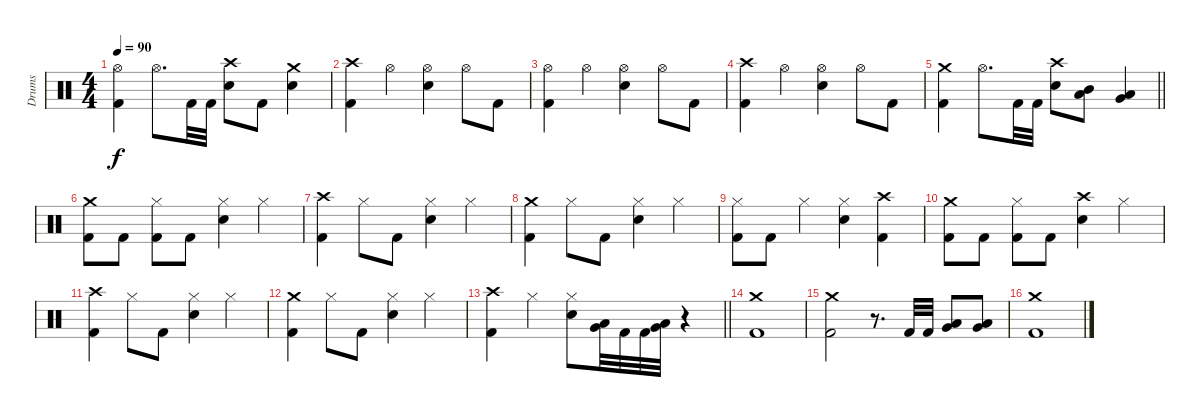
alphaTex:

\track ("Drums" "Drums") {instrument percussion}
\staff {score}
\articulation defaults
\ts (4 4)
\tempo 90
\clef neutral
\ks c
("Hi-Hat (open)" "Kick (hit) 2").4{dy f} "Hi-Hat (open)".8{d} "Kick (hit) 2".32 "Kick (hit) 2".32 ("Crash high (hit)" "Snare (hit) 2").8 "Kick (hit) 2".8 ("Crash medium (hit)" "Snare (hit) 2").4 |
("Crash high (hit)" "Kick (hit) 2").4 "Hi-Hat (open)".4 ("Hi-Hat (open)" "Snare (hit) 2").4 "Hi-Hat (open)".8 "Kick (hit) 2".8 |
("Hi-Hat (open)" "Kick (hit) 2").4 "Hi-Hat (open)".4 ("Hi-Hat (open)" "Snare (hit) 2").4 "Hi-Hat (open)".8 "Kick (hit) 2".8 |
("Crash high (hit)" "Kick (hit) 2").4 "Hi-Hat (open)".4 ("Hi-Hat (open)" "Snare (hit) 2").4 "Hi-Hat (open)".8 "Kick (hit) 2".8 |
\barLineRight lightlight
("Crash medium (hit)" "Kick (hit) 2").4 "Hi-Hat (open)".8{d} "Kick (hit) 2".32 "Kick (hit) 2".32 ("Crash high (hit)" "Snare (hit) 2").8 ("Mid Tom (hit)" "Low Tom (hit)").8 ("Low Tom (hit)" "Very Low Tom (hit)").4 |
("Crash medium (hit)" "Kick (hit) 2").8 "Kick (hit) 2".8 ("Hi-Hat (closed)" "Kick (hit) 2").8 "Kick (hit) 2".8 ("Hi-Hat (closed)" "Snare (hit) 2").4 "Hi-Hat (closed)".4 |
("Crash high (hit)" "Kick (hit) 2").4 "Hi-Hat (closed)".8 "Kick (hit) 2".8 ("Hi-Hat (closed)" "Snare (hit) 2").4 "Hi-Hat (closed)".4 |
("Crash medium (hit)" "Kick (hit) 2").4 "Hi-Hat (closed)".8 "Kick (hit) 2".8 ("Hi-Hat (closed)" "Snare (hit) 2").4 "Hi-Hat (closed)".4 |
("Hi-Hat (closed)" "Kick (hit) 2").8 "Kick (hit) 2".8 "Hi-Hat (closed)".4 ("Hi-Hat (closed)" "Snare (hit) 2").4 ("Crash high (hit)" "Kick (hit) 2").4 |
("Crash medium (hit)" "Kick (hit) 2").8 "Kick (hit) 2".8 ("Hi-Hat (closed)" "Kick (hit) 2").8 "Kick (hit) 2".8 ("Crash high (hit)" "Snare (hit) 2").4 "Hi-Hat (closed)".4 |
("Crash high (hit)" "Kick (hit) 2").4 "Hi-Hat (closed)".8 "Kick (hit) 2".8 ("Hi-Hat (closed)" "Snare (hit) 2").4 "Hi-Hat (closed)".4 |
("Crash medium (hit)" "Kick (hit) 2").4 "Hi-Hat (closed)".8 "Kick (hit) 2".8 ("Hi-Hat (closed)" "Snare (hit) 2").4 "Hi-Hat (closed)".4 |
\barLineRight lightlight
("Crash high (hit)" "Kick (hit) 2").4 "Hi-Hat (closed)".4 ("Hi-Hat (closed)" "Snare (hit) 2").8 ("Low Tom (hit)" "Very Low Tom (hit)").32 "Kick (hit) 2".32 "Kick (hit) 2".32 ("Low Tom (hit)" "Very Low Tom (hit)").32 r.4 |
("Crash medium (hit)" "Kick (hit) 2").1 |
("Crash medium (hit)" "Kick (hit) 2").2 r.8{d} "Kick (hit) 2".32 "Kick (hit) 2".32 ("Low Tom (hit)" "Very Low Tom (hit)").8 ("Low Tom (hit)" "Very Low Tom (hit)").8 |
("Crash medium (hit)" "Kick (hit) 2").1
